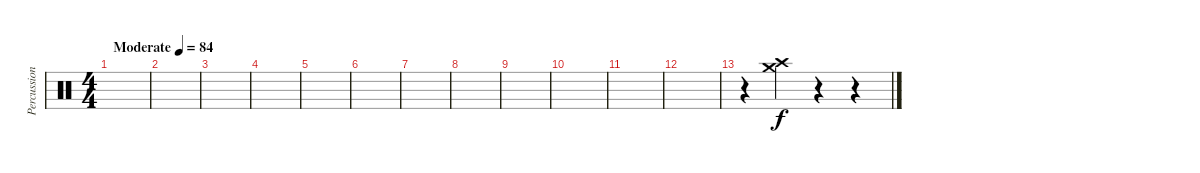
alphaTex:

\track ("Percussion" "Percussion") {instrument percussion}
\staff {score}
\articulation defaults
\ts (4 4)
\tempo (84 "Moderate")
\clef neutral
\ks c
|
|
|
|
|
|
|
|
|
|
|
|
r.4 ("Crash high (hit)" "Crash medium (hit)").4 r.4 r.4
